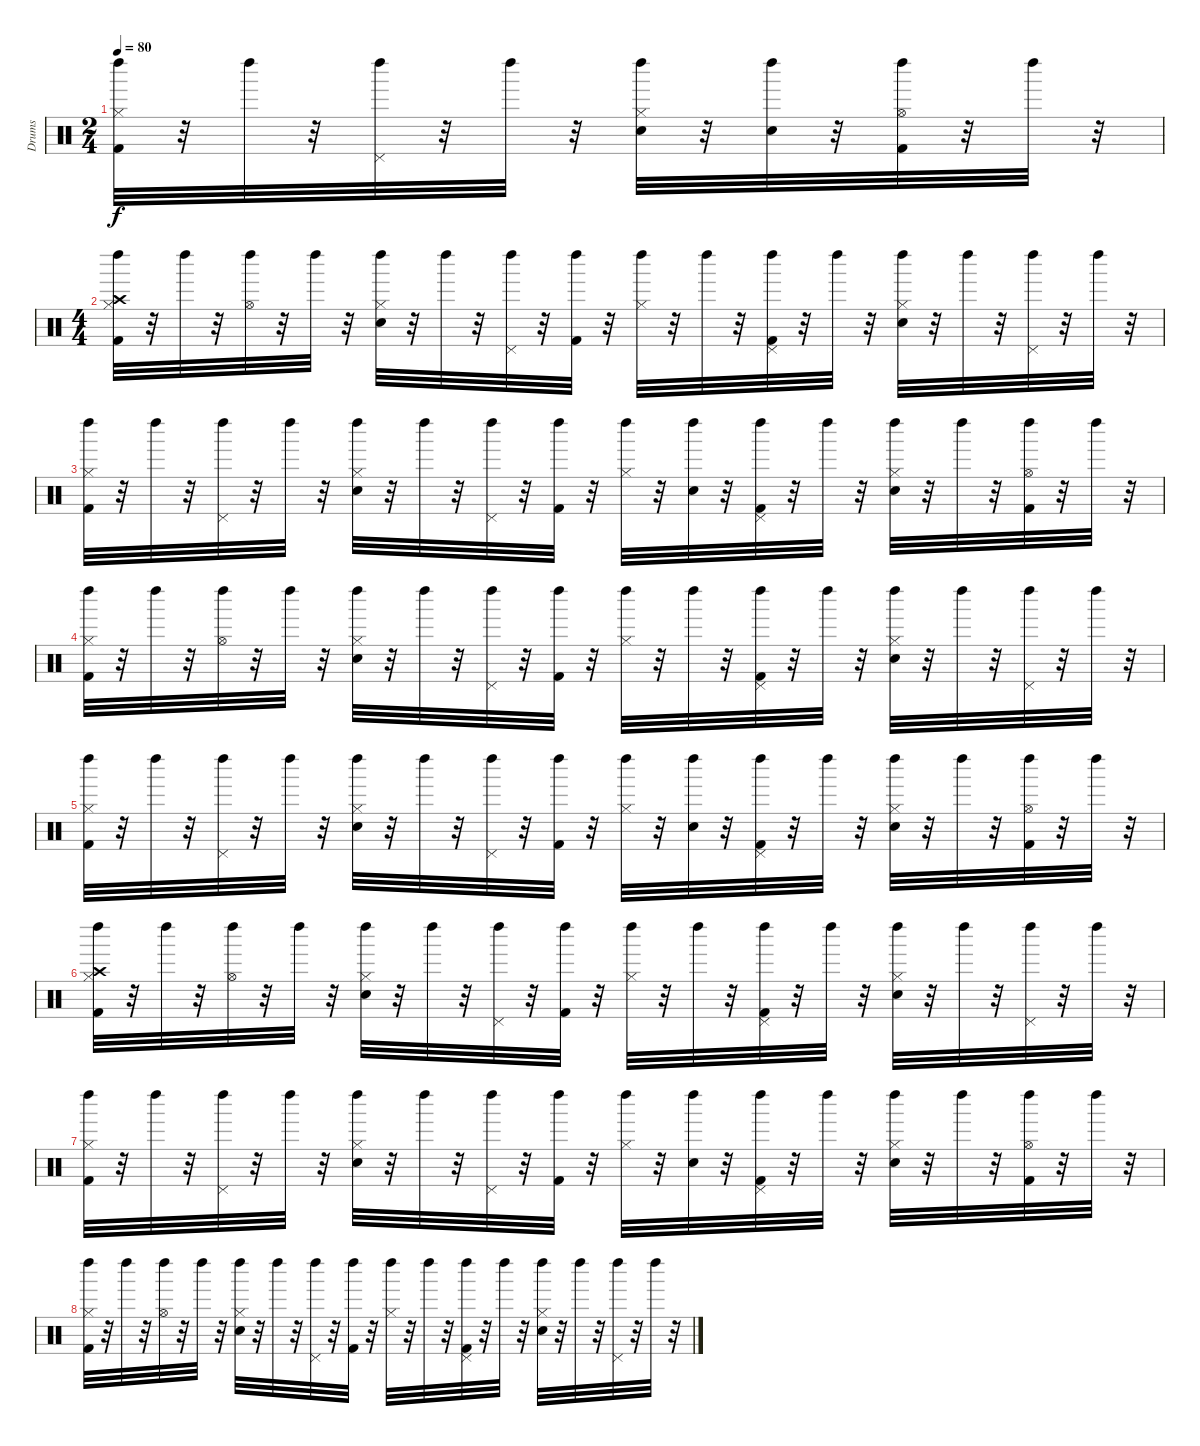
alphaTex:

\track ("Drums" "Drums") {instrument percussion}
\staff {score}
\articulation defaults
\ts (2 4)
\tempo 80
\clef neutral
\ks c
("Kick (hit) 2" "Hi-Hat (closed)" "Left Maraca (hit)").32{dy f} r.32 "Left Maraca (hit)".32 r.32 ("Pedal Hi-Hat (hit)" "Left Maraca (hit)").32 r.32 "Left Maraca (hit)".32 r.32 ("Snare (hit) 2" "Hi-Hat (closed)" "Left Maraca (hit)").32 r.32 ("Snare (hit) 2" "Left Maraca (hit)").32 r.32 ("Hi-Hat (open)" "Kick (hit) 2" "Left Maraca (hit)").32 r.32 "Left Maraca (hit)".32 r.32 |
\ts (4 4)
("Left Maraca (hit)" "Crash high (hit)" "Kick (hit) 2" "Hi-Hat (closed)").32 r.32 "Left Maraca (hit)".32 r.32 ("Left Maraca (hit)" "Hi-Hat (open)").32 r.32 "Left Maraca (hit)".32 r.32 ("Left Maraca (hit)" "Snare (hit) 2" "Hi-Hat (closed)").32 r.32 "Left Maraca (hit)".32 r.32 ("Left Maraca (hit)" "Pedal Hi-Hat (hit)").32 r.32 ("Left Maraca (hit)" "Kick (hit) 2").32 r.32 ("Left Maraca (hit)" "Hi-Hat (closed)").32 r.32 "Left Maraca (hit)".32 r.32 ("Left Maraca (hit)" "Kick (hit) 2" "Pedal Hi-Hat (hit)").32 r.32 "Left Maraca (hit)".32 r.32 ("Left Maraca (hit)" "Snare (hit) 2" "Hi-Hat (closed)").32 r.32 "Left Maraca (hit)".32 r.32 ("Left Maraca (hit)" "Pedal Hi-Hat (hit)").32 r.32 "Left Maraca (hit)".32 r.32 |
("Left Maraca (hit)" "Kick (hit) 2" "Hi-Hat (closed)").32 r.32 "Left Maraca (hit)".32 r.32 ("Left Maraca (hit)" "Pedal Hi-Hat (hit)").32 r.32 "Left Maraca (hit)".32 r.32 ("Left Maraca (hit)" "Snare (hit) 2" "Hi-Hat (closed)").32 r.32 "Left Maraca (hit)".32 r.32 ("Left Maraca (hit)" "Pedal Hi-Hat (hit)").32 r.32 ("Left Maraca (hit)" "Kick (hit) 2").32 r.32 ("Left Maraca (hit)" "Hi-Hat (closed)").32 r.32 ("Left Maraca (hit)" "Snare (hit) 2").32 r.32 ("Left Maraca (hit)" "Kick (hit) 2" "Pedal Hi-Hat (hit)").32 r.32 "Left Maraca (hit)".32 r.32 ("Left Maraca (hit)" "Snare (hit) 2" "Hi-Hat (closed)").32 r.32 "Left Maraca (hit)".32 r.32 ("Left Maraca (hit)" "Hi-Hat (open)" "Kick (hit) 2").32 r.32 "Left Maraca (hit)".32 r.32 |
("Left Maraca (hit)" "Kick (hit) 2" "Hi-Hat (closed)").32 r.32 "Left Maraca (hit)".32 r.32 ("Left Maraca (hit)" "Hi-Hat (open)").32 r.32 "Left Maraca (hit)".32 r.32 ("Left Maraca (hit)" "Snare (hit) 2" "Hi-Hat (closed)").32 r.32 "Left Maraca (hit)".32 r.32 ("Left Maraca (hit)" "Pedal Hi-Hat (hit)").32 r.32 ("Left Maraca (hit)" "Kick (hit) 2").32 r.32 ("Left Maraca (hit)" "Hi-Hat (closed)").32 r.32 "Left Maraca (hit)".32 r.32 ("Left Maraca (hit)" "Kick (hit) 2" "Pedal Hi-Hat (hit)").32 r.32 "Left Maraca (hit)".32 r.32 ("Left Maraca (hit)" "Snare (hit) 2" "Hi-Hat (closed)").32 r.32 "Left Maraca (hit)".32 r.32 ("Left Maraca (hit)" "Pedal Hi-Hat (hit)").32 r.32 "Left Maraca (hit)".32 r.32 |
("Left Maraca (hit)" "Kick (hit) 2" "Hi-Hat (closed)").32 r.32 "Left Maraca (hit)".32 r.32 ("Left Maraca (hit)" "Pedal Hi-Hat (hit)").32 r.32 "Left Maraca (hit)".32 r.32 ("Left Maraca (hit)" "Snare (hit) 2" "Hi-Hat (closed)").32 r.32 "Left Maraca (hit)".32 r.32 ("Left Maraca (hit)" "Pedal Hi-Hat (hit)").32 r.32 ("Left Maraca (hit)" "Kick (hit) 2").32 r.32 ("Left Maraca (hit)" "Hi-Hat (closed)").32 r.32 ("Left Maraca (hit)" "Snare (hit) 2").32 r.32 ("Left Maraca (hit)" "Kick (hit) 2" "Pedal Hi-Hat (hit)").32 r.32 "Left Maraca (hit)".32 r.32 ("Left Maraca (hit)" "Snare (hit) 2" "Hi-Hat (closed)").32 r.32 "Left Maraca (hit)".32 r.32 ("Left Maraca (hit)" "Hi-Hat (open)" "Kick (hit) 2").32 r.32 "Left Maraca (hit)".32 r.32 |
("Left Maraca (hit)" "Crash high (hit)" "Kick (hit) 2" "Hi-Hat (closed)").32 r.32 "Left Maraca (hit)".32 r.32 ("Left Maraca (hit)" "Hi-Hat (open)").32 r.32 "Left Maraca (hit)".32 r.32 ("Left Maraca (hit)" "Snare (hit) 2" "Hi-Hat (closed)").32 r.32 "Left Maraca (hit)".32 r.32 ("Left Maraca (hit)" "Pedal Hi-Hat (hit)").32 r.32 ("Left Maraca (hit)" "Kick (hit) 2").32 r.32 ("Left Maraca (hit)" "Hi-Hat (closed)").32 r.32 "Left Maraca (hit)".32 r.32 ("Left Maraca (hit)" "Kick (hit) 2" "Pedal Hi-Hat (hit)").32 r.32 "Left Maraca (hit)".32 r.32 ("Left Maraca (hit)" "Snare (hit) 2" "Hi-Hat (closed)").32 r.32 "Left Maraca (hit)".32 r.32 ("Left Maraca (hit)" "Pedal Hi-Hat (hit)").32 r.32 "Left Maraca (hit)".32 r.32 |
("Left Maraca (hit)" "Kick (hit) 2" "Hi-Hat (closed)").32 r.32 "Left Maraca (hit)".32 r.32 ("Left Maraca (hit)" "Pedal Hi-Hat (hit)").32 r.32 "Left Maraca (hit)".32 r.32 ("Left Maraca (hit)" "Snare (hit) 2" "Hi-Hat (closed)").32 r.32 "Left Maraca (hit)".32 r.32 ("Left Maraca (hit)" "Pedal Hi-Hat (hit)").32 r.32 ("Left Maraca (hit)" "Kick (hit) 2").32 r.32 ("Left Maraca (hit)" "Hi-Hat (closed)").32 r.32 ("Left Maraca (hit)" "Snare (hit) 2").32 r.32 ("Left Maraca (hit)" "Kick (hit) 2" "Pedal Hi-Hat (hit)").32 r.32 "Left Maraca (hit)".32 r.32 ("Left Maraca (hit)" "Snare (hit) 2" "Hi-Hat (closed)").32 r.32 "Left Maraca (hit)".32 r.32 ("Left Maraca (hit)" "Hi-Hat (open)" "Kick (hit) 2").32 r.32 "Left Maraca (hit)".32 r.32 |
("Left Maraca (hit)" "Kick (hit) 2" "Hi-Hat (closed)").32 r.32 "Left Maraca (hit)".32 r.32 ("Left Maraca (hit)" "Hi-Hat (open)").32 r.32 "Left Maraca (hit)".32 r.32 ("Left Maraca (hit)" "Snare (hit) 2" "Hi-Hat (closed)").32 r.32 "Left Maraca (hit)".32 r.32 ("Left Maraca (hit)" "Pedal Hi-Hat (hit)").32 r.32 ("Left Maraca (hit)" "Kick (hit) 2").32 r.32 ("Left Maraca (hit)" "Hi-Hat (closed)").32 r.32 "Left Maraca (hit)".32 r.32 ("Left Maraca (hit)" "Kick (hit) 2" "Pedal Hi-Hat (hit)").32 r.32 "Left Maraca (hit)".32 r.32 ("Left Maraca (hit)" "Snare (hit) 2" "Hi-Hat (closed)").32 r.32 "Left Maraca (hit)".32 r.32 ("Left Maraca (hit)" "Pedal Hi-Hat (hit)").32 r.32 "Left Maraca (hit)".32 r.32
